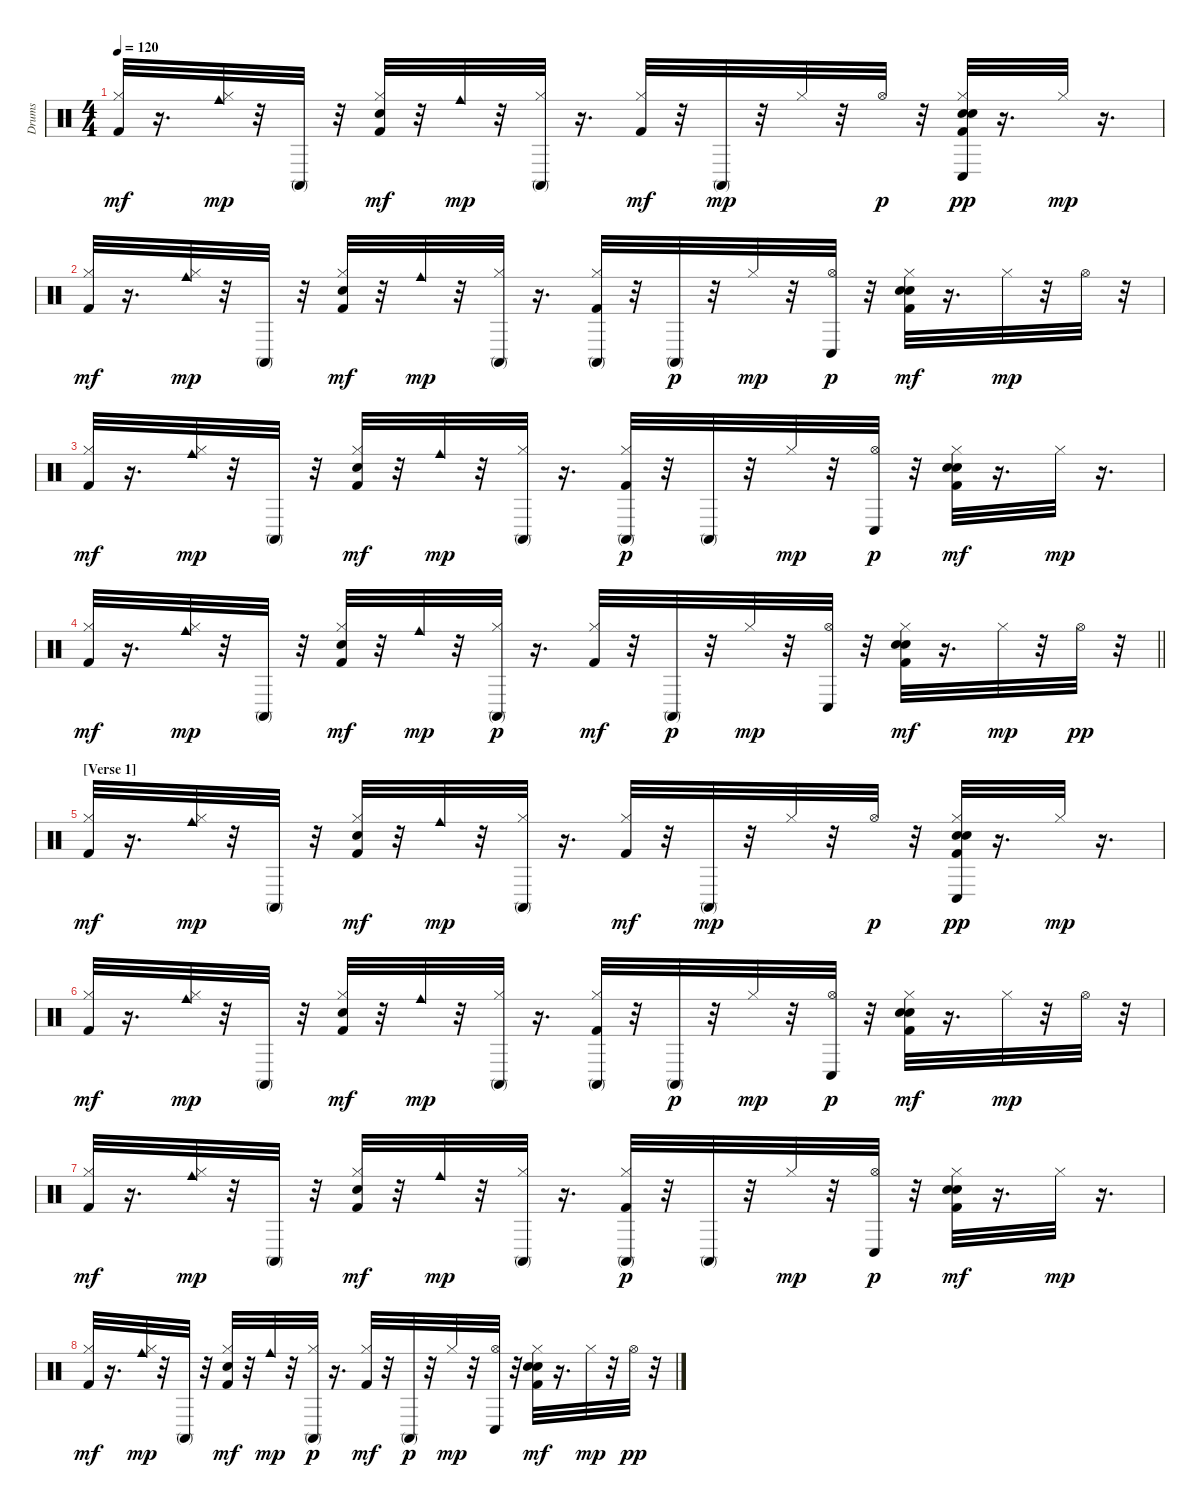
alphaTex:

\track ("Drums" "Drums") {instrument percussion}
\staff {score}
\articulation defaults
\ts (4 4)
\tempo 120
\clef neutral
\ks c
("Hi-Hat (closed)" "Kick (hit) 2").32{dy mf} r.16{d} ("Hi-Hat (closed)" "Cowbell medium (hit)").32{dy mp} r.32 "Conga high (mute)".32 r.32 ("Hi-Hat (closed)" "Electric Snare (hit)" "Kick (hit) 2").32{dy mf} r.32 "Cowbell medium (hit)".32{dy mp} r.32 ("Hi-Hat (closed)" "Conga high (mute)").32 r.16{d} ("Hi-Hat (closed)" "Kick (hit) 2").32{dy mf} r.32 "Conga high (mute)".32{dy mp} r.32 "Hi-Hat (closed)".32 r.32 "Hi-Hat (open)".32{dy p} r.32 ("Hi-Hat (closed)" "Kick (hit) 2" "Hand Clap (hit)" "Electric Snare (hit)" "Conga low (hit)").32{dy pp} r.16{d} "Hi-Hat (closed)".32{dy mp} r.16{d} |
("Hi-Hat (closed)" "Kick (hit) 2").32{dy mf} r.16{d} ("Hi-Hat (closed)" "Cowbell medium (hit)").32{dy mp} r.32 "Conga high (mute)".32 r.32 ("Hi-Hat (closed)" "Electric Snare (hit)" "Kick (hit) 2").32{dy mf} r.32 "Cowbell medium (hit)".32{dy mp} r.32 ("Hi-Hat (closed)" "Conga high (mute)").32 r.16{d} ("Hi-Hat (closed)" "Kick (hit) 2" "Conga high (mute)").32 r.32 "Conga high (mute)".32{dy p} r.32 "Hi-Hat (closed)".32{dy mp} r.32 ("Hi-Hat (open)" "Conga low (hit)").32{dy p} r.32 ("Kick (hit) 2" "Hi-Hat (closed)" "Electric Snare (hit)" "Hand Clap (hit)").32{dy mf} r.16{d} "Hi-Hat (closed)".32{dy mp} r.32 "Hi-Hat (open)".32 r.32 |
("Hi-Hat (closed)" "Kick (hit) 2").32{dy mf} r.16{d} ("Hi-Hat (closed)" "Cowbell medium (hit)").32{dy mp} r.32 "Conga high (mute)".32 r.32 ("Hi-Hat (closed)" "Electric Snare (hit)" "Kick (hit) 2").32{dy mf} r.32 "Cowbell medium (hit)".32{dy mp} r.32 ("Hi-Hat (closed)" "Conga high (mute)").32 r.16{d} ("Kick (hit) 2" "Hi-Hat (closed)" "Conga high (mute)").32{dy p} r.32 "Conga high (mute)".32 r.32 "Hi-Hat (closed)".32{dy mp} r.32 ("Hi-Hat (open)" "Conga low (hit)").32{dy p} r.32 ("Hi-Hat (closed)" "Hand Clap (hit)" "Electric Snare (hit)" "Kick (hit) 2").32{dy mf} r.16{d} "Hi-Hat (closed)".32{dy mp} r.16{d} |
\barLineRight lightlight
("Hi-Hat (closed)" "Kick (hit) 2").32{dy mf} r.16{d} ("Hi-Hat (closed)" "Cowbell medium (hit)").32{dy mp} r.32 "Conga high (mute)".32 r.32 ("Hi-Hat (closed)" "Electric Snare (hit)" "Kick (hit) 2").32{dy mf} r.32 "Cowbell medium (hit)".32{dy mp} r.32 ("Hi-Hat (closed)" "Conga high (mute)").32{dy p} r.16{d} ("Hi-Hat (closed)" "Kick (hit) 2").32{dy mf} r.32 "Conga high (mute)".32{dy p} r.32 "Hi-Hat (closed)".32{dy mp} r.32 ("Hi-Hat (open)" "Conga low (hit)").32 r.32 ("Kick (hit) 2" "Hi-Hat (closed)" "Electric Snare (hit)" "Hand Clap (hit)").32{dy mf} r.16{d} "Hi-Hat (closed)".32{dy mp} r.32 "Hi-Hat (open)".32{dy pp} r.32 |
\section ("" "[Verse 1]")
("Hi-Hat (closed)" "Kick (hit) 2").32{dy mf} r.16{d} ("Hi-Hat (closed)" "Cowbell medium (hit)").32{dy mp} r.32 "Conga high (mute)".32 r.32 ("Hi-Hat (closed)" "Electric Snare (hit)" "Kick (hit) 2").32{dy mf} r.32 "Cowbell medium (hit)".32{dy mp} r.32 ("Hi-Hat (closed)" "Conga high (mute)").32 r.16{d} ("Hi-Hat (closed)" "Kick (hit) 2").32{dy mf} r.32 "Conga high (mute)".32{dy mp} r.32 "Hi-Hat (closed)".32 r.32 "Hi-Hat (open)".32{dy p} r.32 ("Hi-Hat (closed)" "Kick (hit) 2" "Hand Clap (hit)" "Electric Snare (hit)" "Conga low (hit)").32{dy pp} r.16{d} "Hi-Hat (closed)".32{dy mp} r.16{d} |
("Hi-Hat (closed)" "Kick (hit) 2").32{dy mf} r.16{d} ("Hi-Hat (closed)" "Cowbell medium (hit)").32{dy mp} r.32 "Conga high (mute)".32 r.32 ("Hi-Hat (closed)" "Electric Snare (hit)" "Kick (hit) 2").32{dy mf} r.32 "Cowbell medium (hit)".32{dy mp} r.32 ("Hi-Hat (closed)" "Conga high (mute)").32 r.16{d} ("Hi-Hat (closed)" "Kick (hit) 2" "Conga high (mute)").32 r.32 "Conga high (mute)".32{dy p} r.32 "Hi-Hat (closed)".32{dy mp} r.32 ("Hi-Hat (open)" "Conga low (hit)").32{dy p} r.32 ("Kick (hit) 2" "Hi-Hat (closed)" "Electric Snare (hit)" "Hand Clap (hit)").32{dy mf} r.16{d} "Hi-Hat (closed)".32{dy mp} r.32 "Hi-Hat (open)".32 r.32 |
("Hi-Hat (closed)" "Kick (hit) 2").32{dy mf} r.16{d} ("Hi-Hat (closed)" "Cowbell medium (hit)").32{dy mp} r.32 "Conga high (mute)".32 r.32 ("Hi-Hat (closed)" "Electric Snare (hit)" "Kick (hit) 2").32{dy mf} r.32 "Cowbell medium (hit)".32{dy mp} r.32 ("Hi-Hat (closed)" "Conga high (mute)").32 r.16{d} ("Kick (hit) 2" "Hi-Hat (closed)" "Conga high (mute)").32{dy p} r.32 "Conga high (mute)".32 r.32 "Hi-Hat (closed)".32{dy mp} r.32 ("Hi-Hat (open)" "Conga low (hit)").32{dy p} r.32 ("Hi-Hat (closed)" "Hand Clap (hit)" "Electric Snare (hit)" "Kick (hit) 2").32{dy mf} r.16{d} "Hi-Hat (closed)".32{dy mp} r.16{d} |
("Hi-Hat (closed)" "Kick (hit) 2").32{dy mf} r.16{d} ("Hi-Hat (closed)" "Cowbell medium (hit)").32{dy mp} r.32 "Conga high (mute)".32 r.32 ("Hi-Hat (closed)" "Electric Snare (hit)" "Kick (hit) 2").32{dy mf} r.32 "Cowbell medium (hit)".32{dy mp} r.32 ("Hi-Hat (closed)" "Conga high (mute)").32{dy p} r.16{d} ("Hi-Hat (closed)" "Kick (hit) 2").32{dy mf} r.32 "Conga high (mute)".32{dy p} r.32 "Hi-Hat (closed)".32{dy mp} r.32 ("Hi-Hat (open)" "Conga low (hit)").32 r.32 ("Kick (hit) 2" "Hi-Hat (closed)" "Electric Snare (hit)" "Hand Clap (hit)").32{dy mf} r.16{d} "Hi-Hat (closed)".32{dy mp} r.32 "Hi-Hat (open)".32{dy pp} r.32
